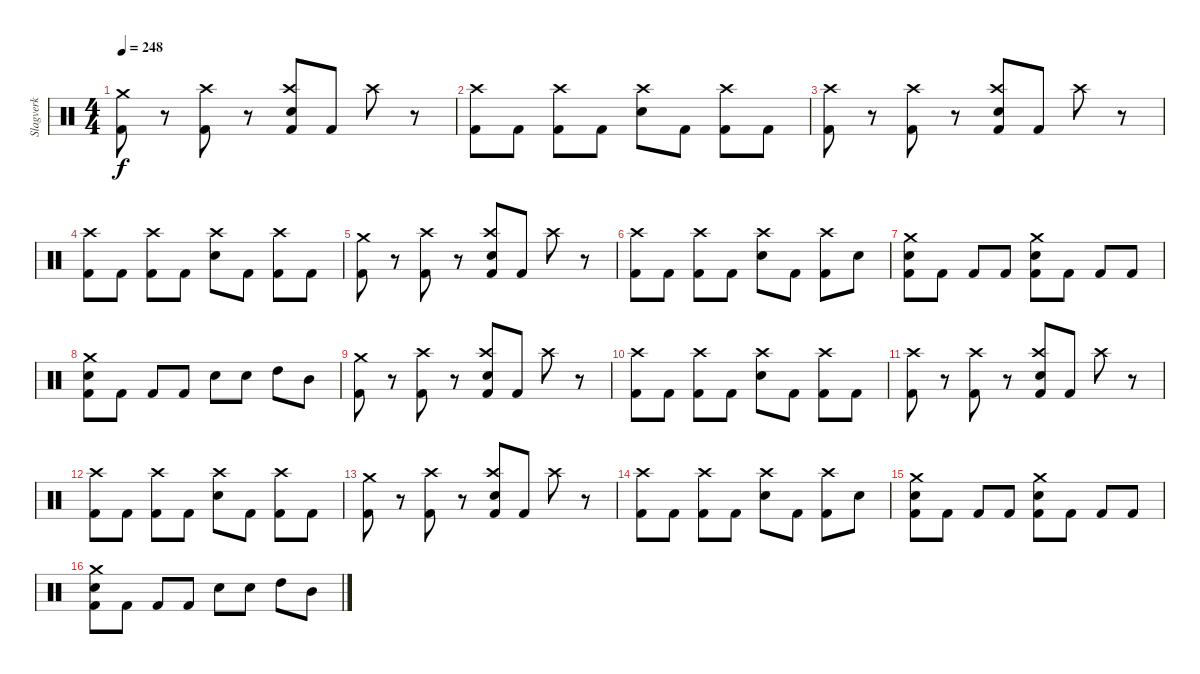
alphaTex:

\track ("Slagverk" "Slagverk") {instrument percussion}
\staff {score}
\articulation defaults
\ts (4 4)
\tempo 248
\clef neutral
\ks c
("Crash medium (hit)" "Kick (hit) 2").8{dy f} r.8 ("Crash high (hit)" "Kick (hit) 2").8 r.8 ("Crash high (hit)" "Snare (hit) 2" "Kick (hit) 2").8 "Kick (hit) 2".8 "Crash high (hit)".8 r.8 |
("Crash high (hit)" "Kick (hit) 2").8 "Kick (hit) 2".8 ("Crash high (hit)" "Kick (hit) 2").8 "Kick (hit) 2".8 ("Crash high (hit)" "Snare (hit) 2").8 "Kick (hit) 2".8 ("Crash high (hit)" "Kick (hit) 2").8 "Kick (hit) 2".8 |
("Crash high (hit)" "Kick (hit) 2").8 r.8 ("Crash high (hit)" "Kick (hit) 2").8 r.8 ("Crash high (hit)" "Snare (hit) 2" "Kick (hit) 2").8 "Kick (hit) 2".8 "Crash high (hit)".8 r.8 |
("Crash high (hit)" "Kick (hit) 2").8 "Kick (hit) 2".8 ("Crash high (hit)" "Kick (hit) 2").8 "Kick (hit) 2".8 ("Crash high (hit)" "Snare (hit) 2").8 "Kick (hit) 2".8 ("Crash high (hit)" "Kick (hit) 2").8 "Kick (hit) 2".8 |
("Crash medium (hit)" "Kick (hit) 2").8 r.8 ("Crash high (hit)" "Kick (hit) 2").8 r.8 ("Crash high (hit)" "Snare (hit) 2" "Kick (hit) 2").8 "Kick (hit) 2".8 "Crash high (hit)".8 r.8 |
("Crash high (hit)" "Kick (hit) 2").8 "Kick (hit) 2".8 ("Crash high (hit)" "Kick (hit) 2").8 "Kick (hit) 2".8 ("Crash high (hit)" "Snare (hit) 2").8 "Kick (hit) 2".8 ("Crash high (hit)" "Kick (hit) 2").8 "Snare (hit) 2".8 |
("Crash medium (hit)" "Snare (hit) 2" "Kick (hit) 2").8 "Kick (hit) 2".8 "Kick (hit) 2".8 "Kick (hit) 2".8 ("Crash medium (hit)" "Snare (hit) 2" "Kick (hit) 2").8 "Kick (hit) 2".8 "Kick (hit) 2".8 "Kick (hit) 2".8 |
("Crash medium (hit)" "Snare (hit) 2" "Kick (hit) 2").8 "Kick (hit) 2".8 "Kick (hit) 2".8 "Kick (hit) 2".8 "Snare (hit) 2".8 "Snare (hit) 2".8 "High Tom (hit)".8 "Mid Tom (hit)".8 |
("Crash medium (hit)" "Kick (hit) 2").8 r.8 ("Crash high (hit)" "Kick (hit) 2").8 r.8 ("Crash high (hit)" "Snare (hit) 2" "Kick (hit) 2").8 "Kick (hit) 2".8 "Crash high (hit)".8 r.8 |
("Crash high (hit)" "Kick (hit) 2").8 "Kick (hit) 2".8 ("Crash high (hit)" "Kick (hit) 2").8 "Kick (hit) 2".8 ("Crash high (hit)" "Snare (hit) 2").8 "Kick (hit) 2".8 ("Crash high (hit)" "Kick (hit) 2").8 "Kick (hit) 2".8 |
("Crash high (hit)" "Kick (hit) 2").8 r.8 ("Crash high (hit)" "Kick (hit) 2").8 r.8 ("Crash high (hit)" "Snare (hit) 2" "Kick (hit) 2").8 "Kick (hit) 2".8 "Crash high (hit)".8 r.8 |
("Crash high (hit)" "Kick (hit) 2").8 "Kick (hit) 2".8 ("Crash high (hit)" "Kick (hit) 2").8 "Kick (hit) 2".8 ("Crash high (hit)" "Snare (hit) 2").8 "Kick (hit) 2".8 ("Crash high (hit)" "Kick (hit) 2").8 "Kick (hit) 2".8 |
("Crash medium (hit)" "Kick (hit) 2").8 r.8 ("Crash high (hit)" "Kick (hit) 2").8 r.8 ("Crash high (hit)" "Snare (hit) 2" "Kick (hit) 2").8 "Kick (hit) 2".8 "Crash high (hit)".8 r.8 |
("Crash high (hit)" "Kick (hit) 2").8 "Kick (hit) 2".8 ("Crash high (hit)" "Kick (hit) 2").8 "Kick (hit) 2".8 ("Crash high (hit)" "Snare (hit) 2").8 "Kick (hit) 2".8 ("Crash high (hit)" "Kick (hit) 2").8 "Snare (hit) 2".8 |
("Crash medium (hit)" "Snare (hit) 2" "Kick (hit) 2").8 "Kick (hit) 2".8 "Kick (hit) 2".8 "Kick (hit) 2".8 ("Crash medium (hit)" "Snare (hit) 2" "Kick (hit) 2").8 "Kick (hit) 2".8 "Kick (hit) 2".8 "Kick (hit) 2".8 |
("Crash medium (hit)" "Snare (hit) 2" "Kick (hit) 2").8 "Kick (hit) 2".8 "Kick (hit) 2".8 "Kick (hit) 2".8 "Snare (hit) 2".8 "Snare (hit) 2".8 "High Tom (hit)".8 "Mid Tom (hit)".8
